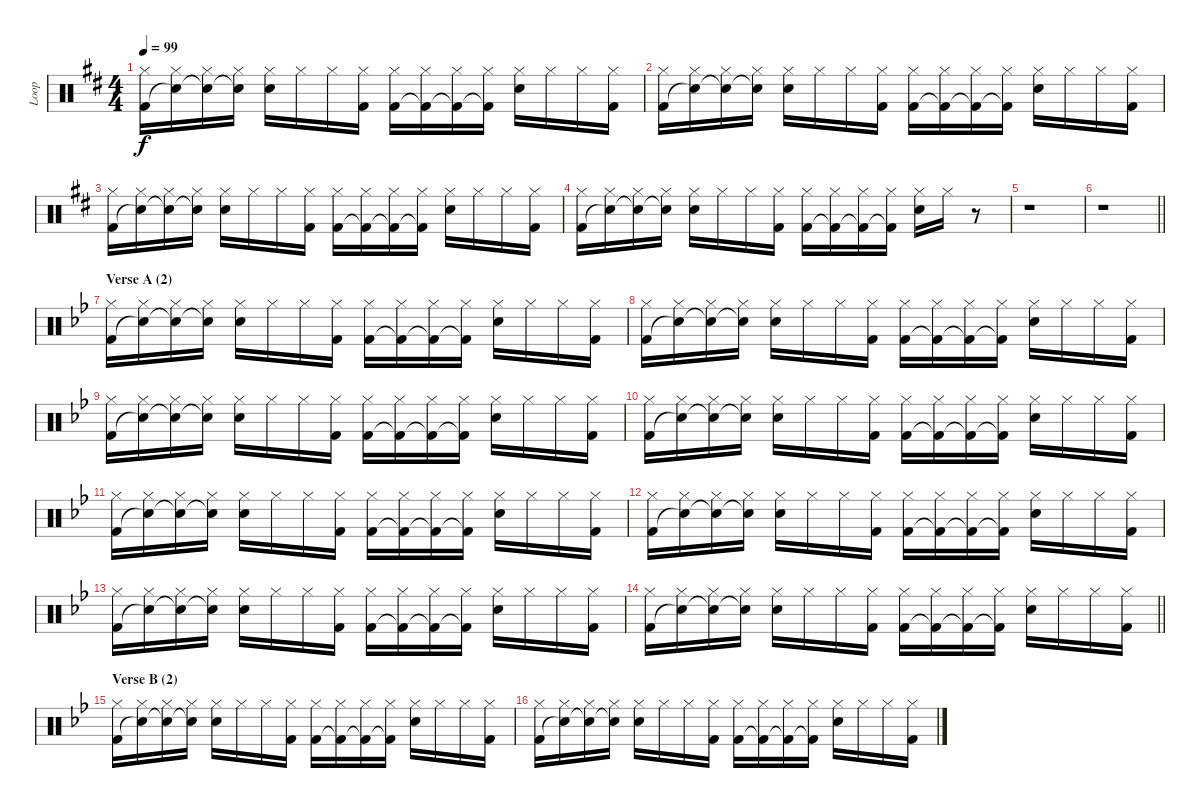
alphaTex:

\track ("Loop" "Loop") {instrument percussion}
\staff {score}
\articulation defaults
\ts (4 4)
\tempo 99
\clef neutral
\ks d
("Hi-Hat (closed)" "Kick (hit) 2").16{dy f} ("Hi-Hat (closed)" "Snare (hit)"{t}).16 ("Hi-Hat (closed)" "Snare (hit)"{t}).16 ("Hi-Hat (closed)" "Snare (hit)"{t}).16 ("Hi-Hat (closed)" "Electric Snare (hit)").16 "Hi-Hat (closed)".16 "Hi-Hat (closed)".16 ("Hi-Hat (closed)" "Kick (hit) 2").16 ("Hi-Hat (closed)" "Kick (hit) 2").16 ("Hi-Hat (closed)" "Kick (hit) 2"{t}).16 ("Hi-Hat (closed)" "Kick (hit) 2"{t}).16 ("Hi-Hat (closed)" "Kick (hit) 2"{t}).16 ("Hi-Hat (closed)" "Electric Snare (hit)").16 "Hi-Hat (closed)".16 "Hi-Hat (closed)".16 ("Hi-Hat (closed)" "Kick (hit) 2").16 |
("Hi-Hat (closed)" "Kick (hit) 2").16 ("Hi-Hat (closed)" "Snare (hit)"{t}).16 ("Hi-Hat (closed)" "Snare (hit)"{t}).16 ("Hi-Hat (closed)" "Snare (hit)"{t}).16 ("Hi-Hat (closed)" "Electric Snare (hit)").16 "Hi-Hat (closed)".16 "Hi-Hat (closed)".16 ("Hi-Hat (closed)" "Kick (hit) 2").16 ("Hi-Hat (closed)" "Kick (hit) 2").16 ("Hi-Hat (closed)" "Kick (hit) 2"{t}).16 ("Hi-Hat (closed)" "Kick (hit) 2"{t}).16 ("Hi-Hat (closed)" "Kick (hit) 2"{t}).16 ("Hi-Hat (closed)" "Electric Snare (hit)").16 "Hi-Hat (closed)".16 "Hi-Hat (closed)".16 ("Hi-Hat (closed)" "Kick (hit) 2").16 |
("Hi-Hat (closed)" "Kick (hit) 2").16 ("Hi-Hat (closed)" "Snare (hit)"{t}).16 ("Hi-Hat (closed)" "Snare (hit)"{t}).16 ("Hi-Hat (closed)" "Snare (hit)"{t}).16 ("Hi-Hat (closed)" "Electric Snare (hit)").16 "Hi-Hat (closed)".16 "Hi-Hat (closed)".16 ("Hi-Hat (closed)" "Kick (hit) 2").16 ("Hi-Hat (closed)" "Kick (hit) 2").16 ("Hi-Hat (closed)" "Kick (hit) 2"{t}).16 ("Hi-Hat (closed)" "Kick (hit) 2"{t}).16 ("Hi-Hat (closed)" "Kick (hit) 2"{t}).16 ("Hi-Hat (closed)" "Electric Snare (hit)").16 "Hi-Hat (closed)".16 "Hi-Hat (closed)".16 ("Hi-Hat (closed)" "Kick (hit) 2").16 |
("Hi-Hat (closed)" "Kick (hit) 2").16 ("Hi-Hat (closed)" "Snare (hit)"{t}).16 ("Hi-Hat (closed)" "Snare (hit)"{t}).16 ("Hi-Hat (closed)" "Snare (hit)"{t}).16 ("Hi-Hat (closed)" "Electric Snare (hit)").16 "Hi-Hat (closed)".16 "Hi-Hat (closed)".16 ("Hi-Hat (closed)" "Kick (hit) 2").16 ("Hi-Hat (closed)" "Kick (hit) 2").16 ("Hi-Hat (closed)" "Kick (hit) 2"{t}).16 ("Hi-Hat (closed)" "Kick (hit) 2"{t}).16 ("Hi-Hat (closed)" "Kick (hit) 2"{t}).16 ("Hi-Hat (closed)" "Electric Snare (hit)").16 "Hi-Hat (closed)".16 r.8 |
r.1 |
\barLineRight lightlight
r.1 |
\section ("" "Verse A (2)")
\ks gminor
("Hi-Hat (closed)" "Kick (hit) 2").16 ("Hi-Hat (closed)" "Snare (hit)"{t}).16 ("Hi-Hat (closed)" "Snare (hit)"{t}).16 ("Hi-Hat (closed)" "Snare (hit)"{t}).16 ("Hi-Hat (closed)" "Electric Snare (hit)").16 "Hi-Hat (closed)".16 "Hi-Hat (closed)".16 ("Hi-Hat (closed)" "Kick (hit) 2").16 ("Hi-Hat (closed)" "Kick (hit) 2").16 ("Hi-Hat (closed)" "Kick (hit) 2"{t}).16 ("Hi-Hat (closed)" "Kick (hit) 2"{t}).16 ("Hi-Hat (closed)" "Kick (hit) 2"{t}).16 ("Hi-Hat (closed)" "Electric Snare (hit)").16 "Hi-Hat (closed)".16 "Hi-Hat (closed)".16 ("Hi-Hat (closed)" "Kick (hit) 2").16 |
("Hi-Hat (closed)" "Kick (hit) 2").16 ("Hi-Hat (closed)" "Snare (hit)"{t}).16 ("Hi-Hat (closed)" "Snare (hit)"{t}).16 ("Hi-Hat (closed)" "Snare (hit)"{t}).16 ("Hi-Hat (closed)" "Electric Snare (hit)").16 "Hi-Hat (closed)".16 "Hi-Hat (closed)".16 ("Hi-Hat (closed)" "Kick (hit) 2").16 ("Hi-Hat (closed)" "Kick (hit) 2").16 ("Hi-Hat (closed)" "Kick (hit) 2"{t}).16 ("Hi-Hat (closed)" "Kick (hit) 2"{t}).16 ("Hi-Hat (closed)" "Kick (hit) 2"{t}).16 ("Hi-Hat (closed)" "Electric Snare (hit)").16 "Hi-Hat (closed)".16 "Hi-Hat (closed)".16 ("Hi-Hat (closed)" "Kick (hit) 2").16 |
("Hi-Hat (closed)" "Kick (hit) 2").16 ("Hi-Hat (closed)" "Snare (hit)"{t}).16 ("Hi-Hat (closed)" "Snare (hit)"{t}).16 ("Hi-Hat (closed)" "Snare (hit)"{t}).16 ("Hi-Hat (closed)" "Electric Snare (hit)").16 "Hi-Hat (closed)".16 "Hi-Hat (closed)".16 ("Hi-Hat (closed)" "Kick (hit) 2").16 ("Hi-Hat (closed)" "Kick (hit) 2").16 ("Hi-Hat (closed)" "Kick (hit) 2"{t}).16 ("Hi-Hat (closed)" "Kick (hit) 2"{t}).16 ("Hi-Hat (closed)" "Kick (hit) 2"{t}).16 ("Hi-Hat (closed)" "Electric Snare (hit)").16 "Hi-Hat (closed)".16 "Hi-Hat (closed)".16 ("Hi-Hat (closed)" "Kick (hit) 2").16 |
("Hi-Hat (closed)" "Kick (hit) 2").16 ("Hi-Hat (closed)" "Snare (hit)"{t}).16 ("Hi-Hat (closed)" "Snare (hit)"{t}).16 ("Hi-Hat (closed)" "Snare (hit)"{t}).16 ("Hi-Hat (closed)" "Electric Snare (hit)").16 "Hi-Hat (closed)".16 "Hi-Hat (closed)".16 ("Hi-Hat (closed)" "Kick (hit) 2").16 ("Hi-Hat (closed)" "Kick (hit) 2").16 ("Hi-Hat (closed)" "Kick (hit) 2"{t}).16 ("Hi-Hat (closed)" "Kick (hit) 2"{t}).16 ("Hi-Hat (closed)" "Kick (hit) 2"{t}).16 ("Hi-Hat (closed)" "Electric Snare (hit)").16 "Hi-Hat (closed)".16 "Hi-Hat (closed)".16 ("Hi-Hat (closed)" "Kick (hit) 2").16 |
("Hi-Hat (closed)" "Kick (hit) 2").16 ("Hi-Hat (closed)" "Snare (hit)"{t}).16 ("Hi-Hat (closed)" "Snare (hit)"{t}).16 ("Hi-Hat (closed)" "Snare (hit)"{t}).16 ("Hi-Hat (closed)" "Electric Snare (hit)").16 "Hi-Hat (closed)".16 "Hi-Hat (closed)".16 ("Hi-Hat (closed)" "Kick (hit) 2").16 ("Hi-Hat (closed)" "Kick (hit) 2").16 ("Hi-Hat (closed)" "Kick (hit) 2"{t}).16 ("Hi-Hat (closed)" "Kick (hit) 2"{t}).16 ("Hi-Hat (closed)" "Kick (hit) 2"{t}).16 ("Hi-Hat (closed)" "Electric Snare (hit)").16 "Hi-Hat (closed)".16 "Hi-Hat (closed)".16 ("Hi-Hat (closed)" "Kick (hit) 2").16 |
("Hi-Hat (closed)" "Kick (hit) 2").16 ("Hi-Hat (closed)" "Snare (hit)"{t}).16 ("Hi-Hat (closed)" "Snare (hit)"{t}).16 ("Hi-Hat (closed)" "Snare (hit)"{t}).16 ("Hi-Hat (closed)" "Electric Snare (hit)").16 "Hi-Hat (closed)".16 "Hi-Hat (closed)".16 ("Hi-Hat (closed)" "Kick (hit) 2").16 ("Hi-Hat (closed)" "Kick (hit) 2").16 ("Hi-Hat (closed)" "Kick (hit) 2"{t}).16 ("Hi-Hat (closed)" "Kick (hit) 2"{t}).16 ("Hi-Hat (closed)" "Kick (hit) 2"{t}).16 ("Hi-Hat (closed)" "Electric Snare (hit)").16 "Hi-Hat (closed)".16 "Hi-Hat (closed)".16 ("Hi-Hat (closed)" "Kick (hit) 2").16 |
("Hi-Hat (closed)" "Kick (hit) 2").16 ("Hi-Hat (closed)" "Snare (hit)"{t}).16 ("Hi-Hat (closed)" "Snare (hit)"{t}).16 ("Hi-Hat (closed)" "Snare (hit)"{t}).16 ("Hi-Hat (closed)" "Electric Snare (hit)").16 "Hi-Hat (closed)".16 "Hi-Hat (closed)".16 ("Hi-Hat (closed)" "Kick (hit) 2").16 ("Hi-Hat (closed)" "Kick (hit) 2").16 ("Hi-Hat (closed)" "Kick (hit) 2"{t}).16 ("Hi-Hat (closed)" "Kick (hit) 2"{t}).16 ("Hi-Hat (closed)" "Kick (hit) 2"{t}).16 ("Hi-Hat (closed)" "Electric Snare (hit)").16 "Hi-Hat (closed)".16 "Hi-Hat (closed)".16 ("Hi-Hat (closed)" "Kick (hit) 2").16 |
\barLineRight lightlight
("Hi-Hat (closed)" "Kick (hit) 2").16 ("Hi-Hat (closed)" "Snare (hit)"{t}).16 ("Hi-Hat (closed)" "Snare (hit)"{t}).16 ("Hi-Hat (closed)" "Snare (hit)"{t}).16 ("Hi-Hat (closed)" "Electric Snare (hit)").16 "Hi-Hat (closed)".16 "Hi-Hat (closed)".16 ("Hi-Hat (closed)" "Kick (hit) 2").16 ("Hi-Hat (closed)" "Kick (hit) 2").16 ("Hi-Hat (closed)" "Kick (hit) 2"{t}).16 ("Hi-Hat (closed)" "Kick (hit) 2"{t}).16 ("Hi-Hat (closed)" "Kick (hit) 2"{t}).16 ("Hi-Hat (closed)" "Electric Snare (hit)").16 "Hi-Hat (closed)".16 "Hi-Hat (closed)".16 ("Hi-Hat (closed)" "Kick (hit) 2").16 |
\section ("" "Verse B (2)")
("Hi-Hat (closed)" "Kick (hit) 2").16 ("Hi-Hat (closed)" "Snare (hit)"{t}).16 ("Hi-Hat (closed)" "Snare (hit)"{t}).16 ("Hi-Hat (closed)" "Snare (hit)"{t}).16 ("Hi-Hat (closed)" "Electric Snare (hit)").16 "Hi-Hat (closed)".16 "Hi-Hat (closed)".16 ("Hi-Hat (closed)" "Kick (hit) 2").16 ("Hi-Hat (closed)" "Kick (hit) 2").16 ("Hi-Hat (closed)" "Kick (hit) 2"{t}).16 ("Hi-Hat (closed)" "Kick (hit) 2"{t}).16 ("Hi-Hat (closed)" "Kick (hit) 2"{t}).16 ("Hi-Hat (closed)" "Electric Snare (hit)").16 "Hi-Hat (closed)".16 "Hi-Hat (closed)".16 ("Hi-Hat (closed)" "Kick (hit) 2").16 |
("Hi-Hat (closed)" "Kick (hit) 2").16 ("Hi-Hat (closed)" "Snare (hit)"{t}).16 ("Hi-Hat (closed)" "Snare (hit)"{t}).16 ("Hi-Hat (closed)" "Snare (hit)"{t}).16 ("Hi-Hat (closed)" "Electric Snare (hit)").16 "Hi-Hat (closed)".16 "Hi-Hat (closed)".16 ("Hi-Hat (closed)" "Kick (hit) 2").16 ("Hi-Hat (closed)" "Kick (hit) 2").16 ("Hi-Hat (closed)" "Kick (hit) 2"{t}).16 ("Hi-Hat (closed)" "Kick (hit) 2"{t}).16 ("Hi-Hat (closed)" "Kick (hit) 2"{t}).16 ("Hi-Hat (closed)" "Electric Snare (hit)").16 "Hi-Hat (closed)".16 "Hi-Hat (closed)".16 ("Hi-Hat (closed)" "Kick (hit) 2").16
